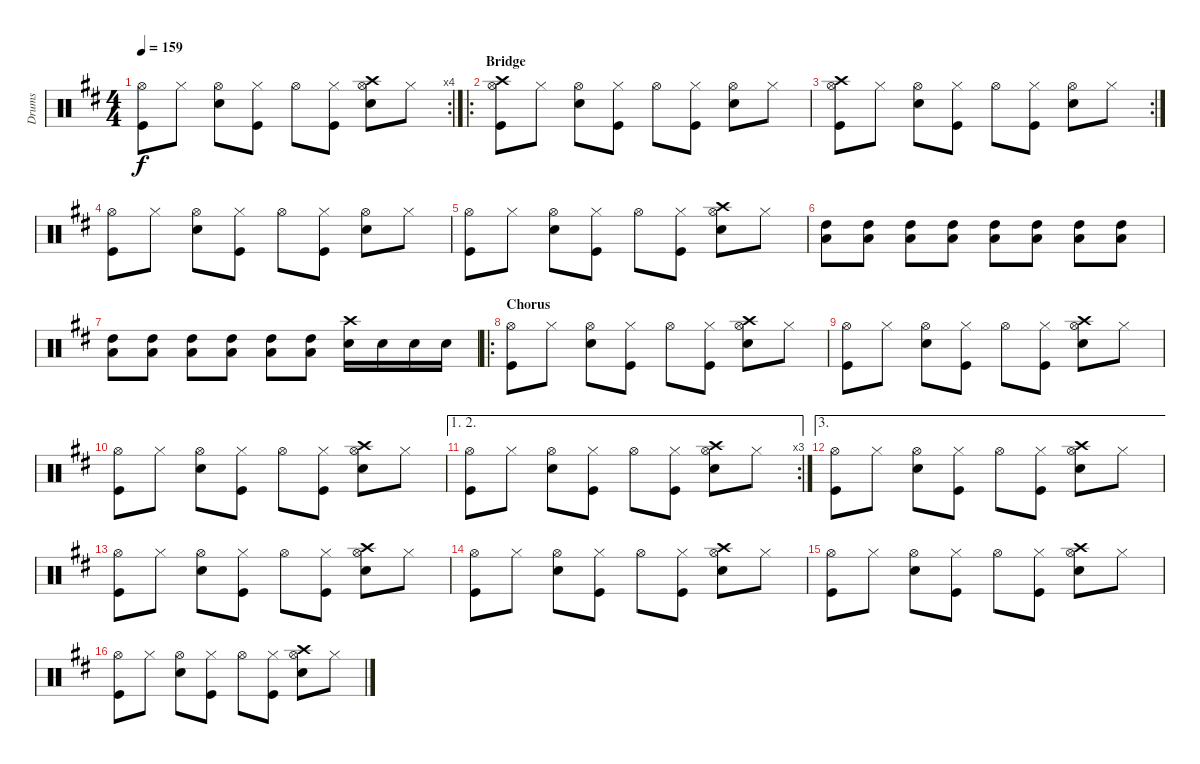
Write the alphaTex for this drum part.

\track ("Drums" "Drums") {instrument percussion}
\staff {score}
\articulation defaults
\rc 4
\ts (4 4)
\tempo 159
\clef neutral
\ks d
("Hi-Hat (open)" "Kick (hit)").8{dy f} "Hi-Hat (closed)".8 ("Hi-Hat (open)" "Snare (hit) 2").8 ("Hi-Hat (closed)" "Kick (hit)").8 "Hi-Hat (open)".8 ("Hi-Hat (closed)" "Kick (hit)").8 ("Hi-Hat (open)" "Snare (hit) 2" "Crash high (hit)").8 "Hi-Hat (closed)".8 |
\ro
\section ("" "Bridge")
("Hi-Hat (open)" "Kick (hit)" "Crash high (hit)").8 "Hi-Hat (closed)".8 ("Hi-Hat (open)" "Snare (hit) 2").8 ("Hi-Hat (closed)" "Kick (hit)").8 "Hi-Hat (open)".8 ("Hi-Hat (closed)" "Kick (hit)").8 ("Hi-Hat (open)" "Snare (hit) 2").8 "Hi-Hat (closed)".8 |
\rc 2
("Hi-Hat (open)" "Kick (hit)" "Crash high (hit)").8 "Hi-Hat (closed)".8 ("Hi-Hat (open)" "Snare (hit) 2").8 ("Hi-Hat (closed)" "Kick (hit)").8 "Hi-Hat (open)".8 ("Hi-Hat (closed)" "Kick (hit)").8 ("Hi-Hat (open)" "Snare (hit) 2").8 "Hi-Hat (closed)".8 |
("Hi-Hat (open)" "Kick (hit)").8 "Hi-Hat (closed)".8 ("Hi-Hat (open)" "Snare (hit) 2").8 ("Hi-Hat (closed)" "Kick (hit)").8 "Hi-Hat (open)".8 ("Hi-Hat (closed)" "Kick (hit)").8 ("Hi-Hat (open)" "Snare (hit) 2").8 "Hi-Hat (closed)".8 |
("Hi-Hat (open)" "Kick (hit)").8 "Hi-Hat (closed)".8 ("Hi-Hat (open)" "Snare (hit) 2").8 ("Hi-Hat (closed)" "Kick (hit)").8 "Hi-Hat (open)".8 ("Hi-Hat (closed)" "Kick (hit)").8 ("Hi-Hat (open)" "Snare (hit) 2" "Crash high (hit)").8 "Hi-Hat (closed)".8 |
("Low Floor Tom (hit)" "High Tom (hit)").8 ("Low Floor Tom (hit)" "High Tom (hit)").8 ("Low Floor Tom (hit)" "High Tom (hit)").8 ("Low Floor Tom (hit)" "High Tom (hit)").8 ("Low Floor Tom (hit)" "High Tom (hit)").8 ("Low Floor Tom (hit)" "High Tom (hit)").8 ("Low Floor Tom (hit)" "High Tom (hit)").8 ("Low Floor Tom (hit)" "High Tom (hit)").8 |
("Low Floor Tom (hit)" "High Tom (hit)").8 ("Low Floor Tom (hit)" "High Tom (hit)").8 ("Low Floor Tom (hit)" "High Tom (hit)").8 ("Low Floor Tom (hit)" "High Tom (hit)").8 ("Low Floor Tom (hit)" "High Tom (hit)").8 ("Low Floor Tom (hit)" "High Tom (hit)").8 ("Snare (hit) 2" "Crash high (hit)").16 "Snare (hit) 2".16 "Snare (hit) 2".16 "Snare (hit) 2".16 |
\ro
\section ("" "Chorus")
("Hi-Hat (open)" "Kick (hit)").8 "Hi-Hat (closed)".8 ("Hi-Hat (open)" "Snare (hit) 2").8 ("Hi-Hat (closed)" "Kick (hit)").8 "Hi-Hat (open)".8 ("Hi-Hat (closed)" "Kick (hit)").8 ("Hi-Hat (open)" "Snare (hit) 2" "Crash high (hit)").8 "Hi-Hat (closed)".8 |
("Hi-Hat (open)" "Kick (hit)").8 "Hi-Hat (closed)".8 ("Hi-Hat (open)" "Snare (hit) 2").8 ("Hi-Hat (closed)" "Kick (hit)").8 "Hi-Hat (open)".8 ("Hi-Hat (closed)" "Kick (hit)").8 ("Hi-Hat (open)" "Snare (hit) 2" "Crash high (hit)").8 "Hi-Hat (closed)".8 |
("Hi-Hat (open)" "Kick (hit)").8 "Hi-Hat (closed)".8 ("Hi-Hat (open)" "Snare (hit) 2").8 ("Hi-Hat (closed)" "Kick (hit)").8 "Hi-Hat (open)".8 ("Hi-Hat (closed)" "Kick (hit)").8 ("Hi-Hat (open)" "Snare (hit) 2" "Crash high (hit)").8 "Hi-Hat (closed)".8 |
\ae (1 2)
\rc 3
("Hi-Hat (open)" "Kick (hit)").8 "Hi-Hat (closed)".8 ("Hi-Hat (open)" "Snare (hit) 2").8 ("Hi-Hat (closed)" "Kick (hit)").8 "Hi-Hat (open)".8 ("Hi-Hat (closed)" "Kick (hit)").8 ("Hi-Hat (open)" "Snare (hit) 2" "Crash high (hit)").8 "Hi-Hat (closed)".8 |
\ae 3
("Hi-Hat (open)" "Kick (hit)").8 "Hi-Hat (closed)".8 ("Hi-Hat (open)" "Snare (hit) 2").8 ("Hi-Hat (closed)" "Kick (hit)").8 "Hi-Hat (open)".8 ("Hi-Hat (closed)" "Kick (hit)").8 ("Hi-Hat (open)" "Snare (hit) 2" "Crash high (hit)").8 "Hi-Hat (closed)".8 |
("Hi-Hat (open)" "Kick (hit)").8 "Hi-Hat (closed)".8 ("Hi-Hat (open)" "Snare (hit) 2").8 ("Hi-Hat (closed)" "Kick (hit)").8 "Hi-Hat (open)".8 ("Hi-Hat (closed)" "Kick (hit)").8 ("Hi-Hat (open)" "Snare (hit) 2" "Crash high (hit)").8 "Hi-Hat (closed)".8 |
("Hi-Hat (open)" "Kick (hit)").8 "Hi-Hat (closed)".8 ("Hi-Hat (open)" "Snare (hit) 2").8 ("Hi-Hat (closed)" "Kick (hit)").8 "Hi-Hat (open)".8 ("Hi-Hat (closed)" "Kick (hit)").8 ("Hi-Hat (open)" "Snare (hit) 2" "Crash high (hit)").8 "Hi-Hat (closed)".8 |
("Hi-Hat (open)" "Kick (hit)").8 "Hi-Hat (closed)".8 ("Hi-Hat (open)" "Snare (hit) 2").8 ("Hi-Hat (closed)" "Kick (hit)").8 "Hi-Hat (open)".8 ("Hi-Hat (closed)" "Kick (hit)").8 ("Hi-Hat (open)" "Snare (hit) 2" "Crash high (hit)").8 "Hi-Hat (closed)".8 |
("Hi-Hat (open)" "Kick (hit)").8 "Hi-Hat (closed)".8 ("Hi-Hat (open)" "Snare (hit) 2").8 ("Hi-Hat (closed)" "Kick (hit)").8 "Hi-Hat (open)".8 ("Hi-Hat (closed)" "Kick (hit)").8 ("Hi-Hat (open)" "Snare (hit) 2" "Crash high (hit)").8 "Hi-Hat (closed)".8
